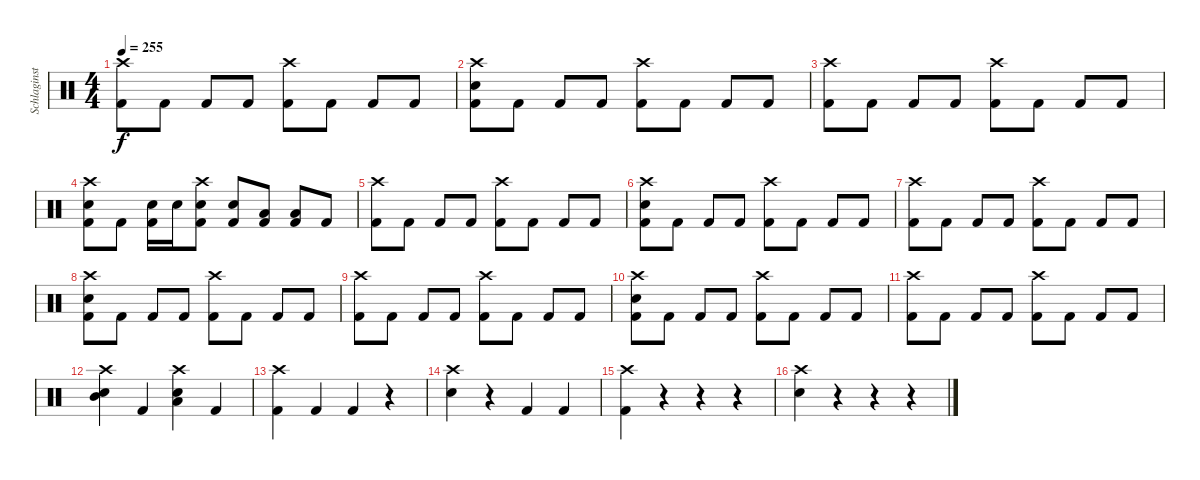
\track ("Schlaginstrumente - Auswahl" "Schlaginst") {instrument percussion}
\staff {score}
\articulation defaults
\ts (4 4)
\tempo 255
\clef neutral
\ks c
("Crash high (hit)" "Kick (hit) 2").8{dy f} "Kick (hit) 2".8 "Kick (hit) 2".8 "Kick (hit) 2".8 ("Crash high (hit)" "Kick (hit) 2").8 "Kick (hit) 2".8 "Kick (hit) 2".8 "Kick (hit) 2".8 |
("Crash high (hit)" "Electric Snare (hit)" "Kick (hit) 2").8 "Kick (hit) 2".8 "Kick (hit) 2".8 "Kick (hit) 2".8 ("Crash high (hit)" "Kick (hit) 2").8 "Kick (hit) 2".8 "Kick (hit) 2".8 "Kick (hit) 2".8 |
("Crash high (hit)" "Kick (hit) 2").8 "Kick (hit) 2".8 "Kick (hit) 2".8 "Kick (hit) 2".8 ("Crash high (hit)" "Kick (hit) 2").8 "Kick (hit) 2".8 "Kick (hit) 2".8 "Kick (hit) 2".8 |
("Crash high (hit)" "Electric Snare (hit)" "Kick (hit) 2").8 "Kick (hit) 2".8 ("Electric Snare (hit)" "Kick (hit) 2").16 "Electric Snare (hit)".16 ("Crash high (hit)" "Electric Snare (hit)" "Kick (hit) 2").8 ("Electric Snare (hit)" "Kick (hit) 2").8 ("Low Tom (hit)" "Kick (hit) 2").8 ("Low Tom (hit)" "Kick (hit) 2").8 "Kick (hit) 2".8 |
("Crash high (hit)" "Kick (hit) 2").8 "Kick (hit) 2".8 "Kick (hit) 2".8 "Kick (hit) 2".8 ("Crash high (hit)" "Kick (hit) 2").8 "Kick (hit) 2".8 "Kick (hit) 2".8 "Kick (hit) 2".8 |
("Crash high (hit)" "Electric Snare (hit)" "Kick (hit) 2").8 "Kick (hit) 2".8 "Kick (hit) 2".8 "Kick (hit) 2".8 ("Crash high (hit)" "Kick (hit) 2").8 "Kick (hit) 2".8 "Kick (hit) 2".8 "Kick (hit) 2".8 |
("Crash high (hit)" "Kick (hit) 2").8 "Kick (hit) 2".8 "Kick (hit) 2".8 "Kick (hit) 2".8 ("Crash high (hit)" "Kick (hit) 2").8 "Kick (hit) 2".8 "Kick (hit) 2".8 "Kick (hit) 2".8 |
("Crash high (hit)" "Electric Snare (hit)" "Kick (hit) 2").8 "Kick (hit) 2".8 "Kick (hit) 2".8 "Kick (hit) 2".8 ("Crash high (hit)" "Kick (hit) 2").8 "Kick (hit) 2".8 "Kick (hit) 2".8 "Kick (hit) 2".8 |
("Crash high (hit)" "Kick (hit) 2").8 "Kick (hit) 2".8 "Kick (hit) 2".8 "Kick (hit) 2".8 ("Crash high (hit)" "Kick (hit) 2").8 "Kick (hit) 2".8 "Kick (hit) 2".8 "Kick (hit) 2".8 |
("Crash high (hit)" "Electric Snare (hit)" "Kick (hit) 2").8 "Kick (hit) 2".8 "Kick (hit) 2".8 "Kick (hit) 2".8 ("Crash high (hit)" "Kick (hit) 2").8 "Kick (hit) 2".8 "Kick (hit) 2".8 "Kick (hit) 2".8 |
("Crash high (hit)" "Kick (hit) 2").8 "Kick (hit) 2".8 "Kick (hit) 2".8 "Kick (hit) 2".8 ("Crash high (hit)" "Kick (hit) 2").8 "Kick (hit) 2".8 "Kick (hit) 2".8 "Kick (hit) 2".8 |
("Crash high (hit)" "Electric Snare (hit)" "Mid Tom (hit)").4 "Kick (hit) 2".4 ("Crash high (hit)" "Low Tom (hit)" "Electric Snare (hit)").4 "Kick (hit) 2".4 |
("Crash high (hit)" "Kick (hit) 2").4 "Kick (hit) 2".4 "Kick (hit) 2".4 r.4 |
("Crash high (hit)" "Electric Snare (hit)").4 r.4 "Kick (hit) 2".4 "Kick (hit) 2".4 |
("Crash high (hit)" "Kick (hit) 2").4 r.4 r.4 r.4 |
("Crash high (hit)" "Electric Snare (hit)").4 r.4 r.4 r.4
